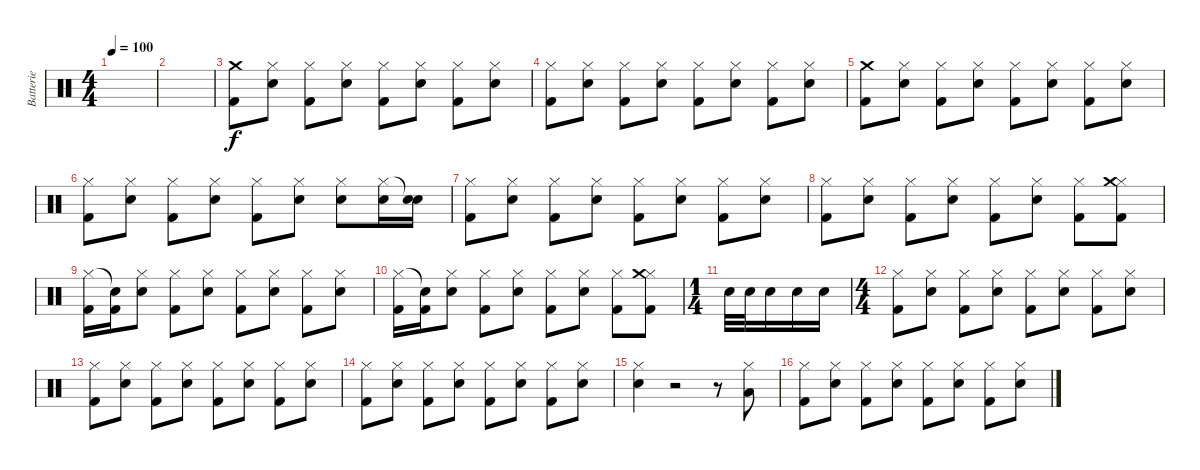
\track ("Batterie" "Batterie") {instrument percussion}
\staff {score}
\articulation defaults
\ts (4 4)
\tempo 100
\clef neutral
\ks c
|
|
("Kick (hit) 2" "Crash medium (hit)").8 ("Electric Snare (hit)" "Hi-Hat (closed)").8 ("Kick (hit) 2" "Hi-Hat (closed)").8 ("Electric Snare (hit)" "Hi-Hat (closed)").8 ("Kick (hit) 2" "Hi-Hat (closed)").8 ("Electric Snare (hit)" "Hi-Hat (closed)").8 ("Kick (hit) 2" "Hi-Hat (closed)").8 ("Electric Snare (hit)" "Hi-Hat (closed)").8 |
("Kick (hit) 2" "Hi-Hat (closed)").8 ("Electric Snare (hit)" "Hi-Hat (closed)").8 ("Kick (hit) 2" "Hi-Hat (closed)").8 ("Electric Snare (hit)" "Hi-Hat (closed)").8 ("Kick (hit) 2" "Hi-Hat (closed)").8 ("Electric Snare (hit)" "Hi-Hat (closed)").8 ("Kick (hit) 2" "Hi-Hat (closed)").8 ("Electric Snare (hit)" "Hi-Hat (closed)").8 |
("Kick (hit) 2" "Crash medium (hit)").8 ("Electric Snare (hit)" "Hi-Hat (closed)").8 ("Kick (hit) 2" "Hi-Hat (closed)").8 ("Electric Snare (hit)" "Hi-Hat (closed)").8 ("Kick (hit) 2" "Hi-Hat (closed)").8 ("Electric Snare (hit)" "Hi-Hat (closed)").8 ("Kick (hit) 2" "Hi-Hat (closed)").8 ("Electric Snare (hit)" "Hi-Hat (closed)").8 |
("Kick (hit) 2" "Hi-Hat (closed)").8 ("Electric Snare (hit)" "Hi-Hat (closed)").8 ("Kick (hit) 2" "Hi-Hat (closed)").8 ("Electric Snare (hit)" "Hi-Hat (closed)").8 ("Kick (hit) 2" "Hi-Hat (closed)").8 ("Electric Snare (hit)" "Hi-Hat (closed)").8 ("Electric Snare (hit)" "Hi-Hat (closed)").8 ("Electric Snare (hit)" "Hi-Hat (closed)").16 ("Electric Snare (hit)" "Snare (hit)"{t}).16 |
("Kick (hit) 2" "Hi-Hat (closed)").8 ("Electric Snare (hit)" "Hi-Hat (closed)").8 ("Kick (hit) 2" "Hi-Hat (closed)").8 ("Electric Snare (hit)" "Hi-Hat (closed)").8 ("Kick (hit) 2" "Hi-Hat (closed)").8 ("Electric Snare (hit)" "Hi-Hat (closed)").8 ("Kick (hit) 2" "Hi-Hat (closed)").8 ("Electric Snare (hit)" "Hi-Hat (closed)").8 |
("Kick (hit) 2" "Hi-Hat (closed)").8 ("Electric Snare (hit)" "Hi-Hat (closed)").8 ("Kick (hit) 2" "Hi-Hat (closed)").8 ("Electric Snare (hit)" "Hi-Hat (closed)").8 ("Kick (hit) 2" "Hi-Hat (closed)").8 ("Electric Snare (hit)" "Hi-Hat (closed)").8 ("Kick (hit) 2" "Hi-Hat (closed)").8 ("Kick (hit) 2" "Hi-Hat (closed)" "Crash medium (hit)").8 |
("Kick (hit) 2" "Hi-Hat (closed)").16 ("Kick (hit) 2" "Snare (hit)"{t}).16 ("Electric Snare (hit)" "Hi-Hat (closed)").8 ("Kick (hit) 2" "Hi-Hat (closed)").8 ("Electric Snare (hit)" "Hi-Hat (closed)").8 ("Kick (hit) 2" "Hi-Hat (closed)").8 ("Electric Snare (hit)" "Hi-Hat (closed)").8 ("Kick (hit) 2" "Hi-Hat (closed)").8 ("Electric Snare (hit)" "Hi-Hat (closed)").8 |
("Kick (hit) 2" "Hi-Hat (closed)").16 ("Kick (hit) 2" "Snare (hit)"{t}).16 ("Electric Snare (hit)" "Hi-Hat (closed)").8 ("Kick (hit) 2" "Hi-Hat (closed)").8 ("Electric Snare (hit)" "Hi-Hat (closed)").8 ("Kick (hit) 2" "Hi-Hat (closed)").8 ("Electric Snare (hit)" "Hi-Hat (closed)").8 ("Kick (hit) 2" "Hi-Hat (closed)").8 ("Kick (hit) 2" "Hi-Hat (closed)" "Crash medium (hit)").8 |
\ts (1 4)
"Electric Snare (hit)".32 "Electric Snare (hit)".32 "Electric Snare (hit)".16 "Electric Snare (hit)".16 "Electric Snare (hit)".16 |
\ts (4 4)
("Kick (hit) 2" "Hi-Hat (closed)").8 ("Electric Snare (hit)" "Hi-Hat (closed)").8 ("Kick (hit) 2" "Hi-Hat (closed)").8 ("Electric Snare (hit)" "Hi-Hat (closed)").8 ("Kick (hit) 2" "Hi-Hat (closed)").8 ("Electric Snare (hit)" "Hi-Hat (closed)").8 ("Kick (hit) 2" "Hi-Hat (closed)").8 ("Electric Snare (hit)" "Hi-Hat (closed)").8 |
("Kick (hit) 2" "Hi-Hat (closed)").8 ("Electric Snare (hit)" "Hi-Hat (closed)").8 ("Kick (hit) 2" "Hi-Hat (closed)").8 ("Electric Snare (hit)" "Hi-Hat (closed)").8 ("Kick (hit) 2" "Hi-Hat (closed)").8 ("Electric Snare (hit)" "Hi-Hat (closed)").8 ("Kick (hit) 2" "Hi-Hat (closed)").8 ("Electric Snare (hit)" "Hi-Hat (closed)").8 |
("Kick (hit) 2" "Hi-Hat (closed)").8 ("Electric Snare (hit)" "Hi-Hat (closed)").8 ("Kick (hit) 2" "Hi-Hat (closed)").8 ("Electric Snare (hit)" "Hi-Hat (closed)").8 ("Kick (hit) 2" "Hi-Hat (closed)").8 ("Electric Snare (hit)" "Hi-Hat (closed)").8 ("Kick (hit) 2" "Hi-Hat (closed)").8 ("Electric Snare (hit)" "Hi-Hat (closed)").8 |
("Electric Snare (hit)" "Hi-Hat (closed)").4 r.2 r.8 ("Low Tom (hit)" "Hi-Hat (closed)").8 |
("Kick (hit) 2" "Hi-Hat (closed)").8 ("Electric Snare (hit)" "Hi-Hat (closed)").8 ("Kick (hit) 2" "Hi-Hat (closed)").8 ("Electric Snare (hit)" "Hi-Hat (closed)").8 ("Kick (hit) 2" "Hi-Hat (closed)").8 ("Electric Snare (hit)" "Hi-Hat (closed)").8 ("Kick (hit) 2" "Hi-Hat (closed)").8 ("Electric Snare (hit)" "Hi-Hat (closed)").8
